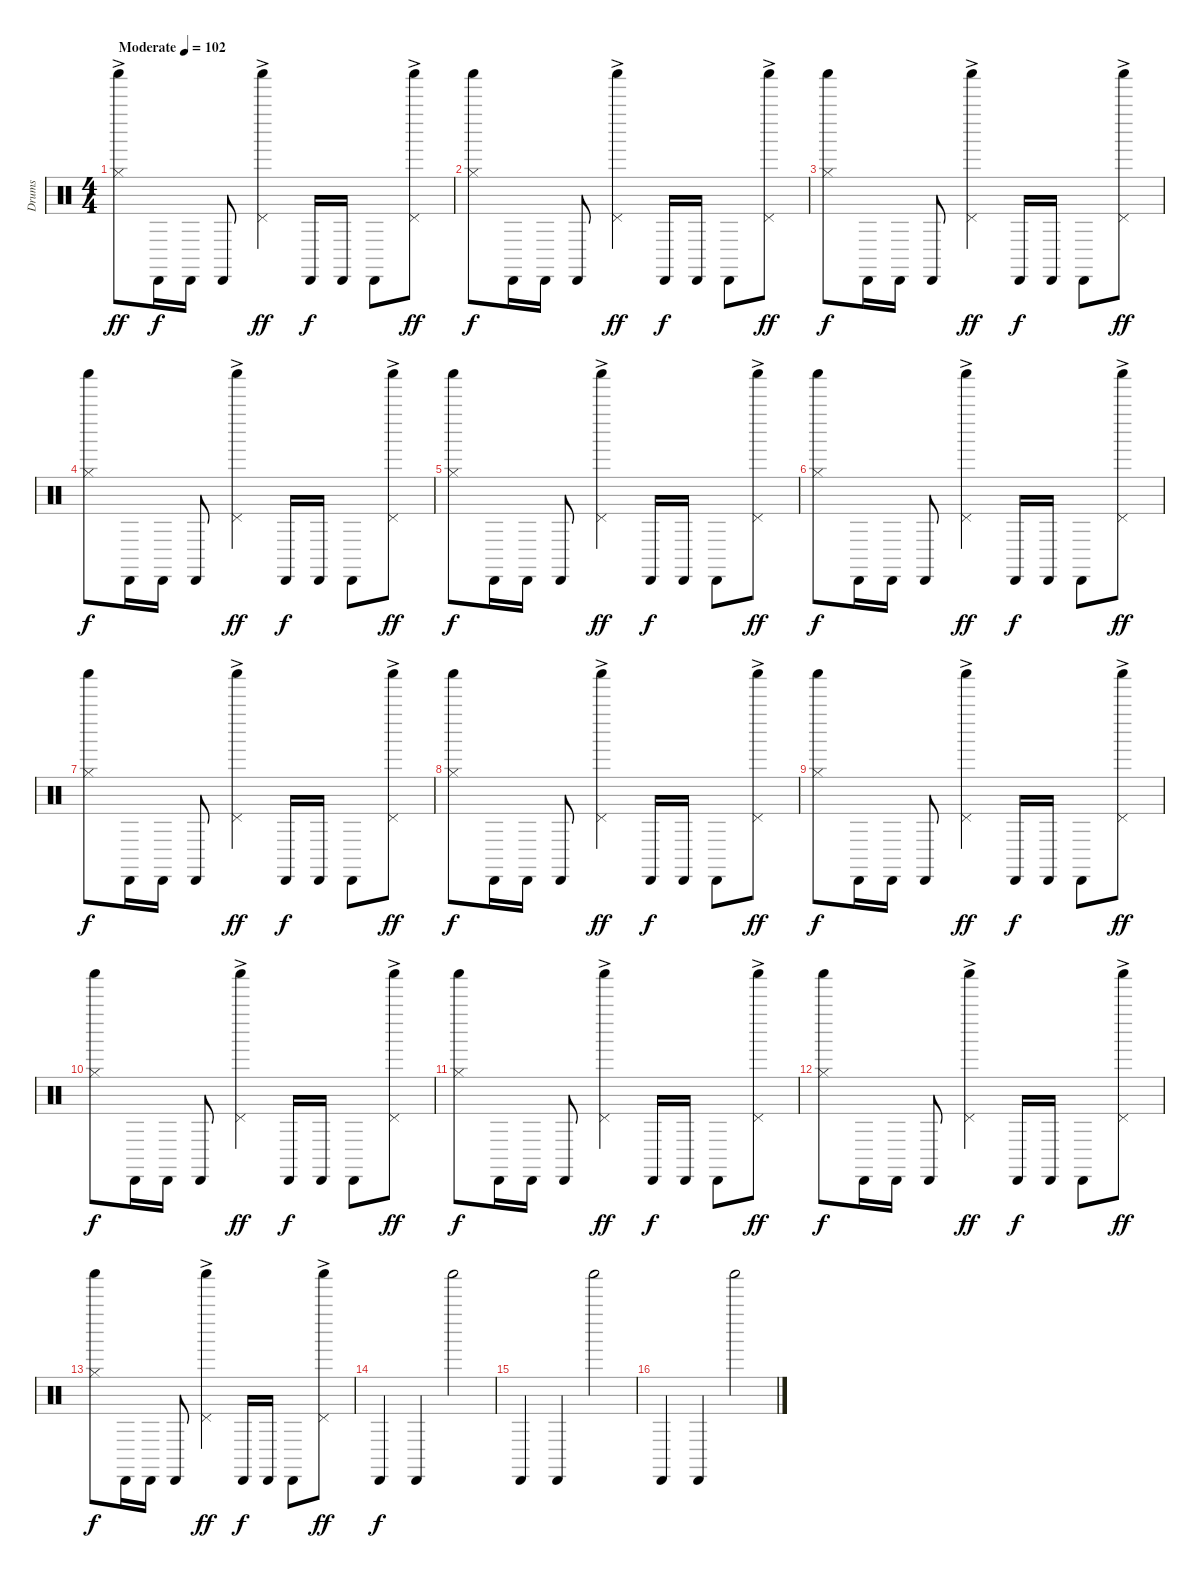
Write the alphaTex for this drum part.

\track ("Drums" "Drums") {instrument percussion}
\staff {score}
\articulation defaults
\ts (4 4)
\tempo (102 "Moderate")
\clef neutral
\ks c
("Shaker (hit)" "Hi-Hat (closed)"{ac}).8{dy ff} "Cabasa (hit)".16{dy f} "Cabasa (hit)".16 "Cabasa (hit)".8 ("Shaker (hit)" "Pedal Hi-Hat (hit)"{ac}).4{dy ff} "Cabasa (hit)".16{dy f} "Cabasa (hit)".16 "Cabasa (hit)".8 ("Shaker (hit)" "Pedal Hi-Hat (hit)"{ac}).8{dy ff} |
("Shaker (hit)" "Hi-Hat (closed)").8{dy f} "Cabasa (hit)".16 "Cabasa (hit)".16 "Cabasa (hit)".8 ("Shaker (hit)" "Pedal Hi-Hat (hit)"{ac}).4{dy ff} "Cabasa (hit)".16{dy f} "Cabasa (hit)".16 "Cabasa (hit)".8 ("Shaker (hit)" "Pedal Hi-Hat (hit)"{ac}).8{dy ff} |
("Shaker (hit)" "Hi-Hat (closed)").8{dy f} "Cabasa (hit)".16 "Cabasa (hit)".16 "Cabasa (hit)".8 ("Shaker (hit)" "Pedal Hi-Hat (hit)"{ac}).4{dy ff} "Cabasa (hit)".16{dy f} "Cabasa (hit)".16 "Cabasa (hit)".8 ("Shaker (hit)" "Pedal Hi-Hat (hit)"{ac}).8{dy ff} |
("Shaker (hit)" "Hi-Hat (closed)").8{dy f} "Cabasa (hit)".16 "Cabasa (hit)".16 "Cabasa (hit)".8 ("Shaker (hit)" "Pedal Hi-Hat (hit)"{ac}).4{dy ff} "Cabasa (hit)".16{dy f} "Cabasa (hit)".16 "Cabasa (hit)".8 ("Shaker (hit)" "Pedal Hi-Hat (hit)"{ac}).8{dy ff} |
("Shaker (hit)" "Hi-Hat (closed)").8{dy f} "Cabasa (hit)".16 "Cabasa (hit)".16 "Cabasa (hit)".8 ("Shaker (hit)" "Pedal Hi-Hat (hit)"{ac}).4{dy ff} "Cabasa (hit)".16{dy f} "Cabasa (hit)".16 "Cabasa (hit)".8 ("Shaker (hit)" "Pedal Hi-Hat (hit)"{ac}).8{dy ff} |
("Shaker (hit)" "Hi-Hat (closed)").8{dy f} "Cabasa (hit)".16 "Cabasa (hit)".16 "Cabasa (hit)".8 ("Shaker (hit)" "Pedal Hi-Hat (hit)"{ac}).4{dy ff} "Cabasa (hit)".16{dy f} "Cabasa (hit)".16 "Cabasa (hit)".8 ("Shaker (hit)" "Pedal Hi-Hat (hit)"{ac}).8{dy ff} |
("Shaker (hit)" "Hi-Hat (closed)").8{dy f} "Cabasa (hit)".16 "Cabasa (hit)".16 "Cabasa (hit)".8 ("Shaker (hit)" "Pedal Hi-Hat (hit)"{ac}).4{dy ff} "Cabasa (hit)".16{dy f} "Cabasa (hit)".16 "Cabasa (hit)".8 ("Shaker (hit)" "Pedal Hi-Hat (hit)"{ac}).8{dy ff} |
("Shaker (hit)" "Hi-Hat (closed)").8{dy f} "Cabasa (hit)".16 "Cabasa (hit)".16 "Cabasa (hit)".8 ("Shaker (hit)" "Pedal Hi-Hat (hit)"{ac}).4{dy ff} "Cabasa (hit)".16{dy f} "Cabasa (hit)".16 "Cabasa (hit)".8 ("Shaker (hit)" "Pedal Hi-Hat (hit)"{ac}).8{dy ff} |
("Shaker (hit)" "Hi-Hat (closed)").8{dy f} "Cabasa (hit)".16 "Cabasa (hit)".16 "Cabasa (hit)".8 ("Shaker (hit)" "Pedal Hi-Hat (hit)"{ac}).4{dy ff} "Cabasa (hit)".16{dy f} "Cabasa (hit)".16 "Cabasa (hit)".8 ("Shaker (hit)" "Pedal Hi-Hat (hit)"{ac}).8{dy ff} |
("Shaker (hit)" "Hi-Hat (closed)").8{dy f} "Cabasa (hit)".16 "Cabasa (hit)".16 "Cabasa (hit)".8 ("Shaker (hit)" "Pedal Hi-Hat (hit)"{ac}).4{dy ff} "Cabasa (hit)".16{dy f} "Cabasa (hit)".16 "Cabasa (hit)".8 ("Shaker (hit)" "Pedal Hi-Hat (hit)"{ac}).8{dy ff} |
("Shaker (hit)" "Hi-Hat (closed)").8{dy f} "Cabasa (hit)".16 "Cabasa (hit)".16 "Cabasa (hit)".8 ("Shaker (hit)" "Pedal Hi-Hat (hit)"{ac}).4{dy ff} "Cabasa (hit)".16{dy f} "Cabasa (hit)".16 "Cabasa (hit)".8 ("Shaker (hit)" "Pedal Hi-Hat (hit)"{ac}).8{dy ff} |
("Shaker (hit)" "Hi-Hat (closed)").8{dy f} "Cabasa (hit)".16 "Cabasa (hit)".16 "Cabasa (hit)".8 ("Shaker (hit)" "Pedal Hi-Hat (hit)"{ac}).4{dy ff} "Cabasa (hit)".16{dy f} "Cabasa (hit)".16 "Cabasa (hit)".8 ("Shaker (hit)" "Pedal Hi-Hat (hit)"{ac}).8{dy ff} |
("Shaker (hit)" "Hi-Hat (closed)").8{dy f} "Cabasa (hit)".16 "Cabasa (hit)".16 "Cabasa (hit)".8 ("Shaker (hit)" "Pedal Hi-Hat (hit)"{ac}).4{dy ff} "Cabasa (hit)".16{dy f} "Cabasa (hit)".16 "Cabasa (hit)".8 ("Shaker (hit)" "Pedal Hi-Hat (hit)"{ac}).8{dy ff} |
"Cabasa (hit)".4{dy f} "Cabasa (hit)".4 "Shaker (hit)".2 |
"Cabasa (hit)".4 "Cabasa (hit)".4 "Shaker (hit)".2 |
"Cabasa (hit)".4 "Cabasa (hit)".4 "Shaker (hit)".2
